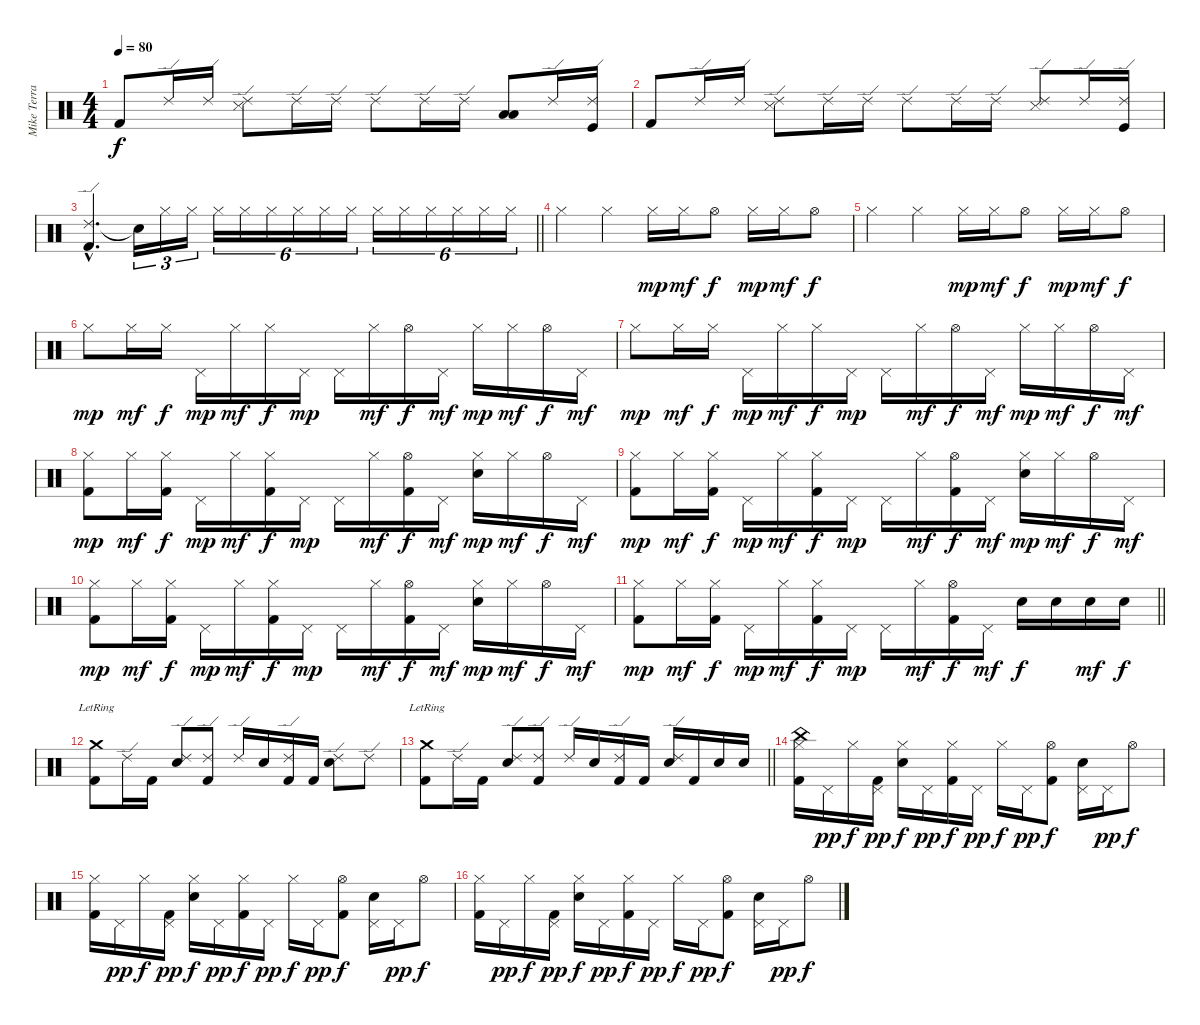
\track ("Mike Terrana" "Mike Terra") {instrument percussion}
\staff {score}
\articulation defaults
\ts (4 4)
\tempo 80
\clef neutral
\ks c "Kick (hit) 2".8{dy f} "Ride (edge) 2".16 "Ride (edge) 2".16
("Ride (edge) 2" "Snare (side stick) 3").8 "Ride (edge) 2".16 "Ride (edge) 2".16 "Ride (edge) 2".8 "Ride (edge) 2".16 "Ride (edge) 2".16 ("Low Tom (hit)" "Low Floor Tom (hit)").8 "Ride (edge) 2".16 ("Ride (edge) 2" "Kick (hit)").16 |
"Kick (hit) 2".8 "Ride (edge) 2".16 "Ride (edge) 2".16 ("Ride (edge) 2" "Snare (side stick) 3").8 "Ride (edge) 2".16 "Ride (edge) 2".16 "Ride (edge) 2".8 "Ride (edge) 2".16 "Ride (edge) 2".16 ("Ride (edge) 2" "Snare (side stick) 3").8 "Ride (edge) 2".16 ("Ride (edge) 2" "Kick (hit)").16 |
\barLineRight lightlight
("Ride (edge) 2"{hac} "Kick (hit) 2"{hac}).4{d} "Snare (hit)"{t}.16{tu (3 2)} "Hi-Hat (closed)".16{tu (3 2)} "Hi-Hat (closed)".16{tu (3 2)} "Hi-Hat (closed)".16{tu (6 4)} "Hi-Hat (closed)".16{tu (6 4)} "Hi-Hat (closed)".16{tu (6 4)} "Hi-Hat (closed)".16{tu (6 4)} "Hi-Hat (closed)".16{tu (6 4)} "Hi-Hat (closed)".16{tu (6 4)} "Hi-Hat (closed)".16{tu (6 4)} "Hi-Hat (closed)".16{tu (6 4)} "Hi-Hat (closed)".16{tu (6 4)} "Hi-Hat (closed)".16{tu (6 4)} "Hi-Hat (closed)".16{tu (6 4)} "Hi-Hat (closed)".16{tu (6 4)} |
"Hi-Hat (closed)".4 "Hi-Hat (closed)".4 "Hi-Hat (closed)".16{dy mp} "Hi-Hat (closed)".16{dy mf} "Hi-Hat (open)".8{dy f} "Hi-Hat (closed)".16{dy mp} "Hi-Hat (closed)".16{dy mf} "Hi-Hat (open)".8{dy f} |
"Hi-Hat (closed)".4 "Hi-Hat (closed)".4 "Hi-Hat (closed)".16{dy mp} "Hi-Hat (closed)".16{dy mf} "Hi-Hat (open)".8{dy f} "Hi-Hat (closed)".16{dy mp} "Hi-Hat (closed)".16{dy mf} "Hi-Hat (open)".8{dy f} |
"Hi-Hat (closed)".8{dy mp} "Hi-Hat (closed)".16{dy mf} "Hi-Hat (closed)".16{dy f} "Pedal Hi-Hat (hit)".16{dy mp} "Hi-Hat (closed)".16{dy mf} "Hi-Hat (closed)".16{dy f} "Pedal Hi-Hat (hit)".16{dy mp} "Pedal Hi-Hat (hit)".16 "Hi-Hat (closed)".16{dy mf} "Hi-Hat (open)".16{dy f} "Pedal Hi-Hat (hit)".16{dy mf} "Hi-Hat (closed)".16{dy mp} "Hi-Hat (closed)".16{dy mf} "Hi-Hat (open)".16{dy f} "Pedal Hi-Hat (hit)".16{dy mf} |
"Hi-Hat (closed)".8{dy mp} "Hi-Hat (closed)".16{dy mf} "Hi-Hat (closed)".16{dy f} "Pedal Hi-Hat (hit)".16{dy mp} "Hi-Hat (closed)".16{dy mf} "Hi-Hat (closed)".16{dy f} "Pedal Hi-Hat (hit)".16{dy mp} "Pedal Hi-Hat (hit)".16 "Hi-Hat (closed)".16{dy mf} "Hi-Hat (open)".16{dy f} "Pedal Hi-Hat (hit)".16{dy mf} "Hi-Hat (closed)".16{dy mp} "Hi-Hat (closed)".16{dy mf} "Hi-Hat (open)".16{dy f} "Pedal Hi-Hat (hit)".16{dy mf} |
("Hi-Hat (closed)" "Kick (hit) 2").8{dy mp} "Hi-Hat (closed)".16{dy mf} ("Hi-Hat (closed)" "Kick (hit) 2").16{dy f} "Pedal Hi-Hat (hit)".16{dy mp} "Hi-Hat (closed)".16{dy mf} ("Hi-Hat (closed)" "Kick (hit) 2").16{dy f} "Pedal Hi-Hat (hit)".16{dy mp} "Pedal Hi-Hat (hit)".16 "Hi-Hat (closed)".16{dy mf} ("Hi-Hat (open)" "Kick (hit) 2").16{dy f} "Pedal Hi-Hat (hit)".16{dy mf} ("Electric Snare (hit)" "Hi-Hat (closed)").16{dy mp} "Hi-Hat (closed)".16{dy mf} "Hi-Hat (open)".16{dy f} "Pedal Hi-Hat (hit)".16{dy mf} |
("Hi-Hat (closed)" "Kick (hit) 2").8{dy mp} "Hi-Hat (closed)".16{dy mf} ("Hi-Hat (closed)" "Kick (hit) 2").16{dy f} "Pedal Hi-Hat (hit)".16{dy mp} "Hi-Hat (closed)".16{dy mf} ("Hi-Hat (closed)" "Kick (hit) 2").16{dy f} "Pedal Hi-Hat (hit)".16{dy mp} "Pedal Hi-Hat (hit)".16 "Hi-Hat (closed)".16{dy mf} ("Hi-Hat (open)" "Kick (hit) 2").16{dy f} "Pedal Hi-Hat (hit)".16{dy mf} ("Electric Snare (hit)" "Hi-Hat (closed)").16{dy mp} "Hi-Hat (closed)".16{dy mf} "Hi-Hat (open)".16{dy f} "Pedal Hi-Hat (hit)".16{dy mf} |
("Hi-Hat (closed)" "Kick (hit) 2").8{dy mp} "Hi-Hat (closed)".16{dy mf} ("Hi-Hat (closed)" "Kick (hit) 2").16{dy f} "Pedal Hi-Hat (hit)".16{dy mp} "Hi-Hat (closed)".16{dy mf} ("Hi-Hat (closed)" "Kick (hit) 2").16{dy f} "Pedal Hi-Hat (hit)".16{dy mp} "Pedal Hi-Hat (hit)".16 "Hi-Hat (closed)".16{dy mf} ("Hi-Hat (open)" "Kick (hit) 2").16{dy f} "Pedal Hi-Hat (hit)".16{dy mf} ("Electric Snare (hit)" "Hi-Hat (closed)").16{dy mp} "Hi-Hat (closed)".16{dy mf} "Hi-Hat (open)".16{dy f} "Pedal Hi-Hat (hit)".16{dy mf} |
\barLineRight lightlight
("Hi-Hat (closed)" "Kick (hit) 2").8{dy mp} "Hi-Hat (closed)".16{dy mf} ("Hi-Hat (closed)" "Kick (hit) 2").16{dy f} "Pedal Hi-Hat (hit)".16{dy mp} "Hi-Hat (closed)".16{dy mf} ("Hi-Hat (closed)" "Kick (hit) 2").16{dy f} "Pedal Hi-Hat (hit)".16{dy mp} "Pedal Hi-Hat (hit)".16 "Hi-Hat (closed)".16{dy mf} ("Hi-Hat (open)" "Kick (hit) 2").16{dy f} "Pedal Hi-Hat (hit)".16{dy mf} "Electric Snare (hit)".16{dy f} "Electric Snare (hit)".16 "Electric Snare (hit)".16{dy mf} "Electric Snare (hit)".16{dy f} |
("Crash medium (hit)"{lr} "Kick (hit) 2").8 "Ride (edge) 2".16 "Kick (hit) 2".16 ("Ride (edge) 2" "Electric Snare (hit)").8 ("Ride (edge) 2" "Kick (hit) 2").8 "Ride (edge) 2".16 "Electric Snare (hit)".16 ("Ride (edge) 2" "Kick (hit) 2").16 "Kick (hit) 2".16 ("Ride (edge) 2" "Electric Snare (hit)").8 "Ride (edge) 2".8 |
\barLineRight lightlight
("Crash medium (hit)"{lr} "Kick (hit) 2").8 "Ride (edge) 2".16 "Kick (hit) 2".16 ("Ride (edge) 2" "Electric Snare (hit)").8 ("Ride (edge) 2" "Kick (hit) 2").8 "Ride (edge) 2".16 "Electric Snare (hit)".16 ("Ride (edge) 2" "Kick (hit) 2").16 "Kick (hit) 2".16 ("Ride (edge) 2" "Electric Snare (hit)").16 "Kick (hit) 2".16 "Electric Snare (hit)".16 "Electric Snare (hit)".16 |
("China (hit)" "Hi-Hat (closed)" "Kick (hit) 2").16 "Pedal Hi-Hat (hit)".16{dy pp} "Hi-Hat (closed)".16{dy f} ("Pedal Hi-Hat (hit)" "Kick (hit) 2").16{dy pp} ("Hi-Hat (closed)" "Electric Snare (hit)").16{dy f} "Pedal Hi-Hat (hit)".16{dy pp} ("Hi-Hat (closed)" "Kick (hit) 2").16{dy f} "Pedal Hi-Hat (hit)".16{dy pp} "Hi-Hat (closed)".16{dy f} "Pedal Hi-Hat (hit)".16{dy pp} ("Hi-Hat (open)" "Kick (hit) 2").8{dy f} ("Pedal Hi-Hat (hit)" "Electric Snare (hit)").16 "Pedal Hi-Hat (hit)".16{dy pp} "Hi-Hat (open)".8{dy f} |
("Hi-Hat (closed)" "Kick (hit) 2").16 "Pedal Hi-Hat (hit)".16{dy pp} "Hi-Hat (closed)".16{dy f} ("Pedal Hi-Hat (hit)" "Kick (hit) 2").16{dy pp} ("Hi-Hat (closed)" "Electric Snare (hit)").16{dy f} "Pedal Hi-Hat (hit)".16{dy pp} ("Hi-Hat (closed)" "Kick (hit) 2").16{dy f} "Pedal Hi-Hat (hit)".16{dy pp} "Hi-Hat (closed)".16{dy f} "Pedal Hi-Hat (hit)".16{dy pp} ("Hi-Hat (open)" "Kick (hit) 2").8{dy f} ("Pedal Hi-Hat (hit)" "Electric Snare (hit)").16 "Pedal Hi-Hat (hit)".16{dy pp} "Hi-Hat (open)".8{dy f} |
("Hi-Hat (closed)" "Kick (hit) 2").16 "Pedal Hi-Hat (hit)".16{dy pp} "Hi-Hat (closed)".16{dy f} ("Pedal Hi-Hat (hit)" "Kick (hit) 2").16{dy pp} ("Hi-Hat (closed)" "Electric Snare (hit)").16{dy f} "Pedal Hi-Hat (hit)".16{dy pp} ("Hi-Hat (closed)" "Kick (hit) 2").16{dy f} "Pedal Hi-Hat (hit)".16{dy pp} "Hi-Hat (closed)".16{dy f} "Pedal Hi-Hat (hit)".16{dy pp} ("Hi-Hat (open)" "Kick (hit) 2").8{dy f} ("Pedal Hi-Hat (hit)" "Electric Snare (hit)").16 "Pedal Hi-Hat (hit)".16{dy pp} "Hi-Hat (open)".8{dy f}
